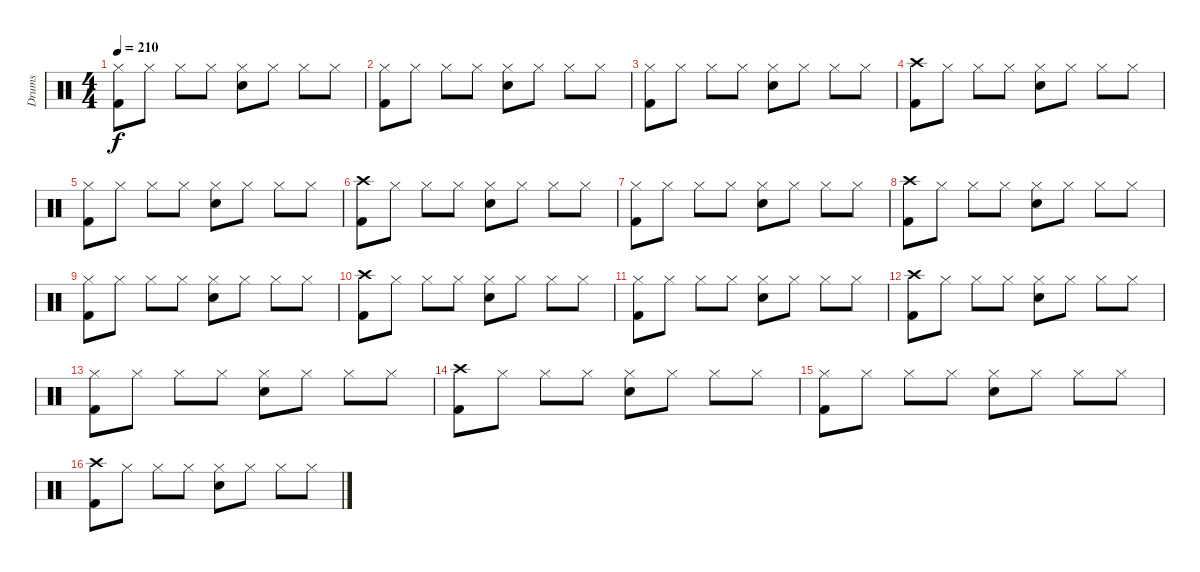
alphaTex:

\track ("Drums" "Drums") {instrument percussion}
\staff {score}
\articulation defaults
\ts (4 4)
\tempo 210
\clef neutral
\ks c
("Hi-Hat (closed)" "Kick (hit) 2").8{dy f} "Hi-Hat (closed)".8 "Hi-Hat (closed)".8 "Hi-Hat (closed)".8 ("Hi-Hat (closed)" "Electric Snare (hit)").8 "Hi-Hat (closed)".8 "Hi-Hat (closed)".8 "Hi-Hat (closed)".8 |
("Hi-Hat (closed)" "Kick (hit) 2").8 "Hi-Hat (closed)".8 "Hi-Hat (closed)".8 "Hi-Hat (closed)".8 ("Hi-Hat (closed)" "Electric Snare (hit)").8 "Hi-Hat (closed)".8 "Hi-Hat (closed)".8 "Hi-Hat (closed)".8 |
("Hi-Hat (closed)" "Kick (hit) 2").8 "Hi-Hat (closed)".8 "Hi-Hat (closed)".8 "Hi-Hat (closed)".8 ("Hi-Hat (closed)" "Electric Snare (hit)").8 "Hi-Hat (closed)".8 "Hi-Hat (closed)".8 "Hi-Hat (closed)".8 |
("Crash high (hit)" "Kick (hit) 2").8 "Hi-Hat (closed)".8 "Hi-Hat (closed)".8 "Hi-Hat (closed)".8 ("Hi-Hat (closed)" "Electric Snare (hit)").8 "Hi-Hat (closed)".8 "Hi-Hat (closed)".8 "Hi-Hat (closed)".8 |
("Hi-Hat (closed)" "Kick (hit) 2").8 "Hi-Hat (closed)".8 "Hi-Hat (closed)".8 "Hi-Hat (closed)".8 ("Hi-Hat (closed)" "Electric Snare (hit)").8 "Hi-Hat (closed)".8 "Hi-Hat (closed)".8 "Hi-Hat (closed)".8 |
("Crash high (hit)" "Kick (hit) 2").8 "Hi-Hat (closed)".8 "Hi-Hat (closed)".8 "Hi-Hat (closed)".8 ("Hi-Hat (closed)" "Electric Snare (hit)").8 "Hi-Hat (closed)".8 "Hi-Hat (closed)".8 "Hi-Hat (closed)".8 |
("Hi-Hat (closed)" "Kick (hit) 2").8 "Hi-Hat (closed)".8 "Hi-Hat (closed)".8 "Hi-Hat (closed)".8 ("Hi-Hat (closed)" "Electric Snare (hit)").8 "Hi-Hat (closed)".8 "Hi-Hat (closed)".8 "Hi-Hat (closed)".8 |
("Crash high (hit)" "Kick (hit) 2").8 "Hi-Hat (closed)".8 "Hi-Hat (closed)".8 "Hi-Hat (closed)".8 ("Hi-Hat (closed)" "Electric Snare (hit)").8 "Hi-Hat (closed)".8 "Hi-Hat (closed)".8 "Hi-Hat (closed)".8 |
("Hi-Hat (closed)" "Kick (hit) 2").8 "Hi-Hat (closed)".8 "Hi-Hat (closed)".8 "Hi-Hat (closed)".8 ("Hi-Hat (closed)" "Electric Snare (hit)").8 "Hi-Hat (closed)".8 "Hi-Hat (closed)".8 "Hi-Hat (closed)".8 |
("Crash high (hit)" "Kick (hit) 2").8 "Hi-Hat (closed)".8 "Hi-Hat (closed)".8 "Hi-Hat (closed)".8 ("Hi-Hat (closed)" "Electric Snare (hit)").8 "Hi-Hat (closed)".8 "Hi-Hat (closed)".8 "Hi-Hat (closed)".8 |
("Hi-Hat (closed)" "Kick (hit) 2").8 "Hi-Hat (closed)".8 "Hi-Hat (closed)".8 "Hi-Hat (closed)".8 ("Hi-Hat (closed)" "Electric Snare (hit)").8 "Hi-Hat (closed)".8 "Hi-Hat (closed)".8 "Hi-Hat (closed)".8 |
("Crash high (hit)" "Kick (hit) 2").8 "Hi-Hat (closed)".8 "Hi-Hat (closed)".8 "Hi-Hat (closed)".8 ("Hi-Hat (closed)" "Electric Snare (hit)").8 "Hi-Hat (closed)".8 "Hi-Hat (closed)".8 "Hi-Hat (closed)".8 |
("Hi-Hat (closed)" "Kick (hit) 2").8 "Hi-Hat (closed)".8 "Hi-Hat (closed)".8 "Hi-Hat (closed)".8 ("Hi-Hat (closed)" "Electric Snare (hit)").8 "Hi-Hat (closed)".8 "Hi-Hat (closed)".8 "Hi-Hat (closed)".8 |
("Crash high (hit)" "Kick (hit) 2").8 "Hi-Hat (closed)".8 "Hi-Hat (closed)".8 "Hi-Hat (closed)".8 ("Hi-Hat (closed)" "Electric Snare (hit)").8 "Hi-Hat (closed)".8 "Hi-Hat (closed)".8 "Hi-Hat (closed)".8 |
("Hi-Hat (closed)" "Kick (hit) 2").8 "Hi-Hat (closed)".8 "Hi-Hat (closed)".8 "Hi-Hat (closed)".8 ("Hi-Hat (closed)" "Electric Snare (hit)").8 "Hi-Hat (closed)".8 "Hi-Hat (closed)".8 "Hi-Hat (closed)".8 |
("Crash high (hit)" "Kick (hit) 2").8 "Hi-Hat (closed)".8 "Hi-Hat (closed)".8 "Hi-Hat (closed)".8 ("Hi-Hat (closed)" "Electric Snare (hit)").8 "Hi-Hat (closed)".8 "Hi-Hat (closed)".8 "Hi-Hat (closed)".8
